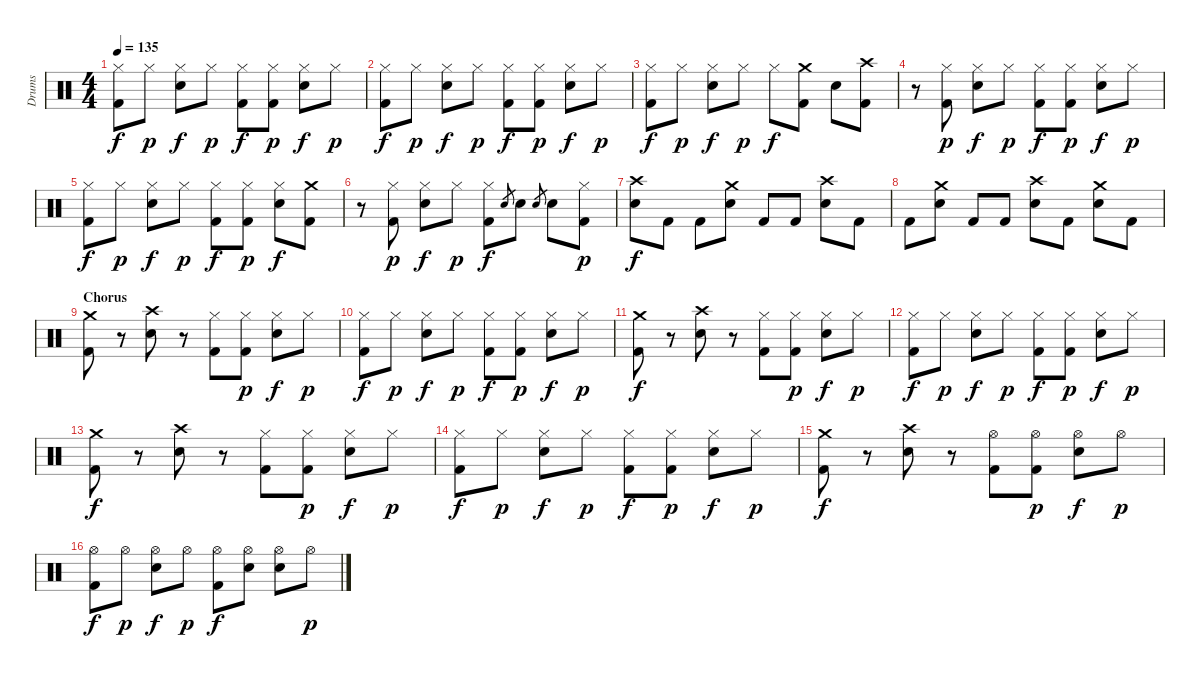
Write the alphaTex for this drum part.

\track ("Drums" "Drums") {instrument percussion}
\staff {score}
\articulation defaults
\ts (4 4)
\tempo 135
\clef neutral
\ks c
("Hi-Hat (closed)" "Kick (hit) 2").8{dy f} "Hi-Hat (closed)".8{dy p} ("Hi-Hat (closed)" "Snare (hit) 2").8{dy f} "Hi-Hat (closed)".8{dy p} ("Hi-Hat (closed)" "Kick (hit) 2").8{dy f} ("Hi-Hat (closed)" "Kick (hit) 2").8{dy p} ("Hi-Hat (closed)" "Snare (hit) 2").8{dy f} "Hi-Hat (closed)".8{dy p} |
("Hi-Hat (closed)" "Kick (hit) 2").8{dy f} "Hi-Hat (closed)".8{dy p} ("Hi-Hat (closed)" "Snare (hit) 2").8{dy f} "Hi-Hat (closed)".8{dy p} ("Hi-Hat (closed)" "Kick (hit) 2").8{dy f} ("Hi-Hat (closed)" "Kick (hit) 2").8{dy p} ("Hi-Hat (closed)" "Snare (hit) 2").8{dy f} "Hi-Hat (closed)".8{dy p} |
("Hi-Hat (closed)" "Kick (hit) 2").8{dy f} "Hi-Hat (closed)".8{dy p} ("Hi-Hat (closed)" "Snare (hit) 2").8{dy f} "Hi-Hat (closed)".8{dy p} "Hi-Hat (closed)".8{dy f} ("Crash medium (hit)" "Kick (hit) 2").8 "Snare (hit) 2".8 ("Crash high (hit)" "Kick (hit) 2").8 |
r.8 ("Hi-Hat (closed)" "Kick (hit) 2").8{dy p} ("Hi-Hat (closed)" "Snare (hit) 2").8{dy f} "Hi-Hat (closed)".8{dy p} ("Hi-Hat (closed)" "Kick (hit) 2").8{dy f} ("Hi-Hat (closed)" "Kick (hit) 2").8{dy p} ("Hi-Hat (closed)" "Snare (hit) 2").8{dy f} "Hi-Hat (closed)".8{dy p} |
("Hi-Hat (closed)" "Kick (hit) 2").8{dy f} "Hi-Hat (closed)".8{dy p} ("Hi-Hat (closed)" "Snare (hit) 2").8{dy f} "Hi-Hat (closed)".8{dy p} ("Hi-Hat (closed)" "Kick (hit) 2").8{dy f} ("Hi-Hat (closed)" "Kick (hit) 2").8{dy p} ("Hi-Hat (closed)" "Snare (hit) 2").8{dy f} ("Crash medium (hit)" "Kick (hit) 2").8 |
r.8 ("Hi-Hat (closed)" "Kick (hit) 2").8{dy p} ("Hi-Hat (closed)" "Snare (hit) 2").8{dy f} "Hi-Hat (closed)".8{dy p} ("Hi-Hat (closed)" "Kick (hit) 2").8{dy f} "Snare (hit) 2".8{gr} "Snare (hit) 2".8 "Snare (hit) 2".8{gr} "Snare (hit) 2".8 ("Hi-Hat (closed)" "Kick (hit) 2").8{dy p} |
("Crash high (hit)" "Snare (hit) 2").8{dy f} "Kick (hit) 2".8 "Kick (hit) 2".8 ("Crash medium (hit)" "Snare (hit) 2").8 "Kick (hit) 2".8 "Kick (hit) 2".8 ("Crash high (hit)" "Snare (hit) 2").8 "Kick (hit) 2".8 |
"Kick (hit) 2".8 ("Crash medium (hit)" "Snare (hit) 2").8 "Kick (hit) 2".8 "Kick (hit) 2".8 ("Crash high (hit)" "Snare (hit) 2").8 "Kick (hit) 2".8 ("Crash medium (hit)" "Snare (hit) 2").8 "Kick (hit) 2".8 |
\section ("" "Chorus")
("Crash medium (hit)" "Kick (hit) 2").8 r.8 ("Crash high (hit)" "Snare (hit) 2").8 r.8 ("Hi-Hat (closed)" "Kick (hit) 2").8 ("Hi-Hat (closed)" "Kick (hit) 2").8{dy p} ("Hi-Hat (closed)" "Snare (hit) 2").8{dy f} "Hi-Hat (closed)".8{dy p} |
("Hi-Hat (closed)" "Kick (hit) 2").8{dy f} "Hi-Hat (closed)".8{dy p} ("Hi-Hat (closed)" "Snare (hit) 2").8{dy f} "Hi-Hat (closed)".8{dy p} ("Hi-Hat (closed)" "Kick (hit) 2").8{dy f} ("Hi-Hat (closed)" "Kick (hit) 2").8{dy p} ("Hi-Hat (closed)" "Snare (hit) 2").8{dy f} "Hi-Hat (closed)".8{dy p} |
("Crash medium (hit)" "Kick (hit) 2").8{dy f} r.8 ("Crash high (hit)" "Snare (hit) 2").8 r.8 ("Hi-Hat (closed)" "Kick (hit) 2").8 ("Hi-Hat (closed)" "Kick (hit) 2").8{dy p} ("Hi-Hat (closed)" "Snare (hit) 2").8{dy f} "Hi-Hat (closed)".8{dy p} |
("Hi-Hat (closed)" "Kick (hit) 2").8{dy f} "Hi-Hat (closed)".8{dy p} ("Hi-Hat (closed)" "Snare (hit) 2").8{dy f} "Hi-Hat (closed)".8{dy p} ("Hi-Hat (closed)" "Kick (hit) 2").8{dy f} ("Hi-Hat (closed)" "Kick (hit) 2").8{dy p} ("Hi-Hat (closed)" "Snare (hit) 2").8{dy f} "Hi-Hat (closed)".8{dy p} |
("Crash medium (hit)" "Kick (hit) 2").8{dy f} r.8 ("Crash high (hit)" "Snare (hit) 2").8 r.8 ("Hi-Hat (closed)" "Kick (hit) 2").8 ("Hi-Hat (closed)" "Kick (hit) 2").8{dy p} ("Hi-Hat (closed)" "Snare (hit) 2").8{dy f} "Hi-Hat (closed)".8{dy p} |
("Hi-Hat (closed)" "Kick (hit) 2").8{dy f} "Hi-Hat (closed)".8{dy p} ("Hi-Hat (closed)" "Snare (hit) 2").8{dy f} "Hi-Hat (closed)".8{dy p} ("Hi-Hat (closed)" "Kick (hit) 2").8{dy f} ("Hi-Hat (closed)" "Kick (hit) 2").8{dy p} ("Hi-Hat (closed)" "Snare (hit) 2").8{dy f} "Hi-Hat (closed)".8{dy p} |
("Crash medium (hit)" "Kick (hit) 2").8{dy f} r.8 ("Crash high (hit)" "Snare (hit) 2").8 r.8 ("Hi-Hat (open)" "Kick (hit) 2").8 ("Hi-Hat (open)" "Kick (hit) 2").8{dy p} ("Hi-Hat (open)" "Snare (hit) 2").8{dy f} "Hi-Hat (open)".8{dy p} |
("Hi-Hat (open)" "Kick (hit) 2").8{dy f} "Hi-Hat (open)".8{dy p} ("Hi-Hat (open)" "Snare (hit) 2").8{dy f} "Hi-Hat (open)".8{dy p} ("Hi-Hat (open)" "Kick (hit) 2").8{dy f} ("Hi-Hat (open)" "Snare (hit) 2").8 ("Hi-Hat (open)" "Snare (hit) 2").8 "Hi-Hat (open)".8{dy p}
